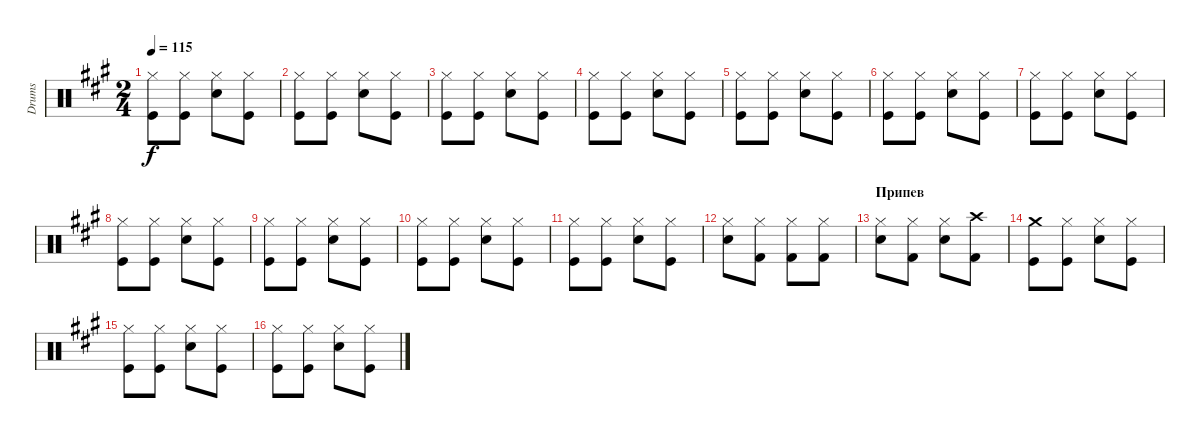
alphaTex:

\track ("Drums" "Drums") {instrument percussion}
\staff {score}
\articulation defaults
\ts (2 4)
\tempo 115
\clef neutral
\ks f#minor
("Hi-Hat (closed)" "Kick (hit)").8{dy f} ("Hi-Hat (closed)" "Kick (hit)").8 ("Hi-Hat (closed)" "Electric Snare (hit)").8 ("Hi-Hat (closed)" "Kick (hit)").8 |
("Hi-Hat (closed)" "Kick (hit)").8 ("Hi-Hat (closed)" "Kick (hit)").8 ("Hi-Hat (closed)" "Electric Snare (hit)").8 ("Hi-Hat (closed)" "Kick (hit)").8 |
("Hi-Hat (closed)" "Kick (hit)").8 ("Hi-Hat (closed)" "Kick (hit)").8 ("Hi-Hat (closed)" "Electric Snare (hit)").8 ("Hi-Hat (closed)" "Kick (hit)").8 |
("Hi-Hat (closed)" "Kick (hit)").8 ("Hi-Hat (closed)" "Kick (hit)").8 ("Hi-Hat (closed)" "Electric Snare (hit)").8 ("Hi-Hat (closed)" "Kick (hit)").8 |
("Hi-Hat (closed)" "Kick (hit)").8 ("Hi-Hat (closed)" "Kick (hit)").8 ("Hi-Hat (closed)" "Electric Snare (hit)").8 ("Hi-Hat (closed)" "Kick (hit)").8 |
("Hi-Hat (closed)" "Kick (hit)").8 ("Hi-Hat (closed)" "Kick (hit)").8 ("Hi-Hat (closed)" "Electric Snare (hit)").8 ("Hi-Hat (closed)" "Kick (hit)").8 |
("Hi-Hat (closed)" "Kick (hit)").8 ("Hi-Hat (closed)" "Kick (hit)").8 ("Hi-Hat (closed)" "Electric Snare (hit)").8 ("Hi-Hat (closed)" "Kick (hit)").8 |
("Hi-Hat (closed)" "Kick (hit)").8 ("Hi-Hat (closed)" "Kick (hit)").8 ("Hi-Hat (closed)" "Electric Snare (hit)").8 ("Hi-Hat (closed)" "Kick (hit)").8 |
("Hi-Hat (closed)" "Kick (hit)").8 ("Hi-Hat (closed)" "Kick (hit)").8 ("Hi-Hat (closed)" "Electric Snare (hit)").8 ("Hi-Hat (closed)" "Kick (hit)").8 |
("Hi-Hat (closed)" "Kick (hit)").8 ("Hi-Hat (closed)" "Kick (hit)").8 ("Hi-Hat (closed)" "Electric Snare (hit)").8 ("Hi-Hat (closed)" "Kick (hit)").8 |
("Hi-Hat (closed)" "Kick (hit)").8 ("Hi-Hat (closed)" "Kick (hit)").8 ("Hi-Hat (closed)" "Electric Snare (hit)").8 ("Hi-Hat (closed)" "Kick (hit)").8 |
("Hi-Hat (closed)" "Electric Snare (hit)").8 ("Hi-Hat (closed)" "Kick (hit) 2").8 ("Hi-Hat (closed)" "Kick (hit) 2").8 ("Hi-Hat (closed)" "Kick (hit) 2").8 |
\section ("" "Припев")
("Hi-Hat (closed)" "Electric Snare (hit)").8 ("Hi-Hat (closed)" "Kick (hit) 2").8 ("Hi-Hat (closed)" "Electric Snare (hit)").8 ("Crash high (hit)" "Kick (hit) 2").8 |
("Crash medium (hit)" "Kick (hit)").8 ("Hi-Hat (closed)" "Kick (hit)").8 ("Hi-Hat (closed)" "Electric Snare (hit)").8 ("Hi-Hat (closed)" "Kick (hit)").8 |
("Hi-Hat (closed)" "Kick (hit)").8 ("Hi-Hat (closed)" "Kick (hit)").8 ("Hi-Hat (closed)" "Electric Snare (hit)").8 ("Hi-Hat (closed)" "Kick (hit)").8 |
("Hi-Hat (closed)" "Kick (hit)").8 ("Hi-Hat (closed)" "Kick (hit)").8 ("Hi-Hat (closed)" "Electric Snare (hit)").8 ("Hi-Hat (closed)" "Kick (hit)").8
